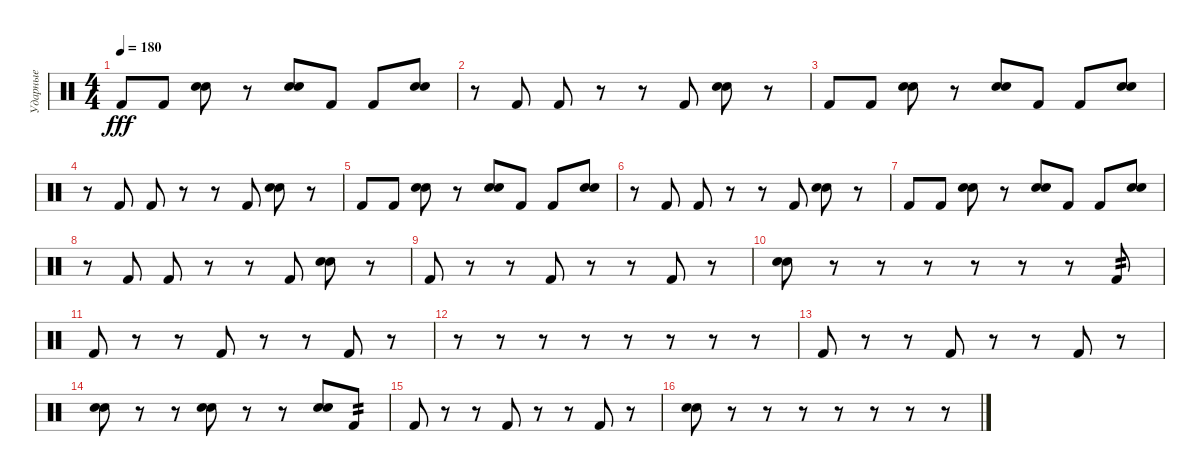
\track ("Ударные" "Ударные") {instrument percussion}
\staff {score}
\articulation defaults
\ts (4 4)
\tempo 180
\clef neutral
\ks c "Kick (hit) 2".8{dy fff} "Kick (hit) 2".8
("Electric Snare (hit)" "Snare (hit) 2").8 r.8 ("Electric Snare (hit)" "Snare (hit) 2").8 "Kick (hit) 2".8 "Kick (hit) 2".8 ("Electric Snare (hit)" "Snare (hit) 2").8 |
r.8 "Kick (hit) 2".8 "Kick (hit) 2".8 r.8 r.8 "Kick (hit) 2".8 ("Electric Snare (hit)" "Snare (hit) 2").8 r.8 |
"Kick (hit) 2".8 "Kick (hit) 2".8 ("Electric Snare (hit)" "Snare (hit) 2").8 r.8 ("Electric Snare (hit)" "Snare (hit) 2").8 "Kick (hit) 2".8 "Kick (hit) 2".8 ("Electric Snare (hit)" "Snare (hit) 2").8 |
r.8 "Kick (hit) 2".8 "Kick (hit) 2".8 r.8 r.8 "Kick (hit) 2".8 ("Electric Snare (hit)" "Snare (hit) 2").8 r.8 |
"Kick (hit) 2".8 "Kick (hit) 2".8 ("Electric Snare (hit)" "Snare (hit) 2").8 r.8 ("Electric Snare (hit)" "Snare (hit) 2").8 "Kick (hit) 2".8 "Kick (hit) 2".8 ("Electric Snare (hit)" "Snare (hit) 2").8 |
r.8 "Kick (hit) 2".8 "Kick (hit) 2".8 r.8 r.8 "Kick (hit) 2".8 ("Electric Snare (hit)" "Snare (hit) 2").8 r.8 |
"Kick (hit) 2".8 "Kick (hit) 2".8 ("Electric Snare (hit)" "Snare (hit) 2").8 r.8 ("Electric Snare (hit)" "Snare (hit) 2").8 "Kick (hit) 2".8 "Kick (hit) 2".8 ("Electric Snare (hit)" "Snare (hit) 2").8 |
r.8 "Kick (hit) 2".8 "Kick (hit) 2".8 r.8 r.8 "Kick (hit) 2".8 ("Electric Snare (hit)" "Snare (hit) 2").8 r.8 |
"Kick (hit) 2".8 r.8 r.8 "Kick (hit) 2".8 r.8 r.8 "Kick (hit) 2".8 r.8 |
("Electric Snare (hit)" "Snare (hit) 2").8 r.8 r.8 r.8 r.8 r.8 r.8 "Kick (hit) 2".8{tp 2} |
"Kick (hit) 2".8 r.8 r.8 "Kick (hit) 2".8 r.8 r.8 "Kick (hit) 2".8 r.8 |
r.8 r.8 r.8 r.8 r.8 r.8 r.8 r.8 |
"Kick (hit) 2".8 r.8 r.8 "Kick (hit) 2".8 r.8 r.8 "Kick (hit) 2".8 r.8 |
("Electric Snare (hit)" "Snare (hit) 2").8 r.8 r.8 ("Electric Snare (hit)" "Snare (hit) 2").8 r.8 r.8 ("Electric Snare (hit)" "Snare (hit) 2").8 "Kick (hit) 2".8{tp 2} |
"Kick (hit) 2".8 r.8 r.8 "Kick (hit) 2".8 r.8 r.8 "Kick (hit) 2".8 r.8 |
("Electric Snare (hit)" "Snare (hit) 2").8 r.8 r.8 r.8 r.8 r.8 r.8 r.8
